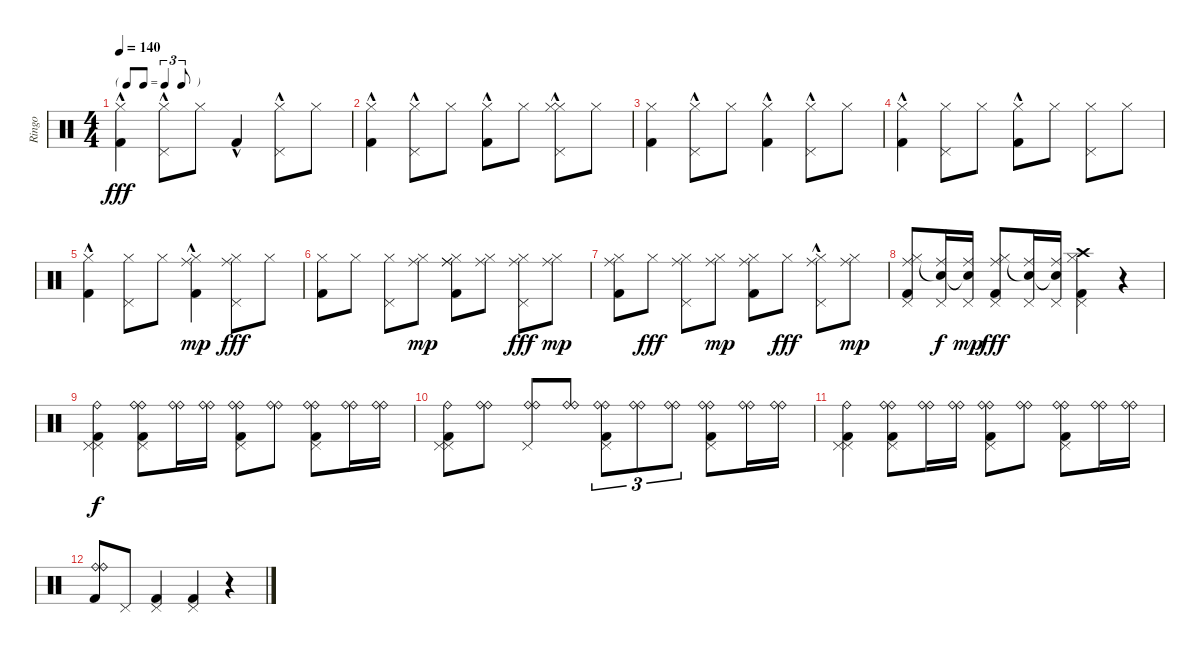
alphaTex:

\track ("Ringo" "Ringo") {instrument percussion}
\staff {score}
\articulation defaults
\ts (4 4)
\tf triplet8th
\tempo 140
\clef neutral
\ks c
("Kick (hit) 2"{hac} "Hi-Hat (closed)").4{dy fff} ("Hi-Hat (closed)" "Pedal Hi-Hat (hit)"{hac}).8 "Hi-Hat (closed)".8 "Kick (hit) 2"{hac}.4 ("Hi-Hat (closed)" "Pedal Hi-Hat (hit)"{hac}).8 "Hi-Hat (closed)".8 |
("Kick (hit) 2"{hac} "Hi-Hat (closed)").4 ("Hi-Hat (closed)" "Pedal Hi-Hat (hit)"{hac}).8 "Hi-Hat (closed)".8 ("Kick (hit) 2"{hac} "Hi-Hat (closed)").8 "Hi-Hat (closed)".8 ("Hi-Hat (closed)" "Hi-Hat (closed)" "Pedal Hi-Hat (hit)"{hac}).8 "Hi-Hat (closed)".8 |
("Kick (hit) 2" "Hi-Hat (closed)").4 ("Hi-Hat (closed)" "Pedal Hi-Hat (hit)"{hac}).8 "Hi-Hat (closed)".8 ("Kick (hit) 2"{hac} "Hi-Hat (closed)").4 ("Hi-Hat (closed)" "Pedal Hi-Hat (hit)"{hac}).8 "Hi-Hat (closed)".8 |
("Kick (hit) 2"{hac} "Hi-Hat (closed)").4 ("Hi-Hat (closed)" "Pedal Hi-Hat (hit)").8 "Hi-Hat (closed)".8 ("Kick (hit) 2"{hac} "Hi-Hat (closed)").8 "Hi-Hat (closed)".8 ("Hi-Hat (closed)" "Pedal Hi-Hat (hit)").8 "Hi-Hat (closed)".8 |
("Kick (hit) 2"{hac} "Hi-Hat (closed)").4 ("Hi-Hat (closed)" "Pedal Hi-Hat (hit)").8 "Hi-Hat (closed)".8 ("Kick (hit) 2"{hac} "Hi-Hat (closed)" "Ride (middle)").4{dy mp} ("Hi-Hat (closed)" "Ride (middle)" "Pedal Hi-Hat (hit)").8{dy fff} "Hi-Hat (closed)".8 |
("Kick (hit) 2" "Hi-Hat (closed)").8 "Hi-Hat (closed)".8 ("Hi-Hat (closed)" "Pedal Hi-Hat (hit)").8 ("Hi-Hat (closed)" "Ride (middle)").8{dy mp} ("Kick (hit) 2" "Hi-Hat (closed)" "Ride (middle)" "Ride (middle)").8 ("Hi-Hat (closed)" "Ride (middle)").8 ("Hi-Hat (closed)" "Ride (middle)" "Pedal Hi-Hat (hit)").8{dy fff} ("Hi-Hat (closed)" "Ride (middle)").8{dy mp} |
("Kick (hit) 2" "Hi-Hat (closed)" "Ride (middle)").8 "Hi-Hat (closed)".8{dy fff} ("Hi-Hat (closed)" "Ride (middle)" "Pedal Hi-Hat (hit)").8 ("Hi-Hat (closed)" "Ride (middle)").8{dy mp} ("Kick (hit) 2" "Hi-Hat (closed)" "Ride (middle)").8 "Hi-Hat (closed)".8{dy fff} ("Hi-Hat (closed)" "Ride (middle)" "Pedal Hi-Hat (hit)"{hac}).8 ("Hi-Hat (closed)" "Ride (middle)").8{dy mp} |
("Ride (middle)" "Pedal Hi-Hat (hit)" "Hi-Hat (closed)" "Kick (hit) 2").8 ("Ride (middle)" "Pedal Hi-Hat (hit)" "Snare (hit)"{t}).16{dy f} ("Ride (middle)" "Pedal Hi-Hat (hit)" "Snare (hit)"{t}).16{dy mp} ("Ride (middle)" "Pedal Hi-Hat (hit)" "Hi-Hat (closed)" "Kick (hit) 2").8{dy fff} ("Ride (middle)" "Pedal Hi-Hat (hit)" "Snare (hit)"{t}).16 ("Ride (middle)" "Pedal Hi-Hat (hit)" "Snare (hit)"{t}).16 ("Crash high (hit)" "Pedal Hi-Hat (hit)" "Hi-Hat (closed)" "Kick (hit) 2").4 r.4 |
("Ride (bell)" "Pedal Hi-Hat (hit)" "Pedal Hi-Hat (hit)" "Kick (hit) 2").4{dy f} ("Ride (bell)" "Ride (bell)" "Pedal Hi-Hat (hit)" "Kick (hit) 2").8 ("Ride (bell)" "Ride (bell)").16 ("Ride (bell)" "Ride (bell)").16 ("Ride (bell)" "Ride (bell)" "Pedal Hi-Hat (hit)" "Kick (hit) 2").8 ("Ride (bell)" "Ride (bell)").8 ("Ride (bell)" "Ride (bell)" "Pedal Hi-Hat (hit)" "Kick (hit) 2").8 ("Ride (bell)" "Ride (bell)").16 ("Ride (bell)" "Ride (bell)").16 |
("Ride (bell)" "Pedal Hi-Hat (hit)" "Pedal Hi-Hat (hit)" "Kick (hit) 2").8 ("Ride (bell)" "Ride (bell)").8 ("Ride (bell)" "Ride (bell)" "Pedal Hi-Hat (hit)").8 ("Ride (bell)" "Ride (bell)").8 ("Ride (bell)" "Ride (bell)" "Pedal Hi-Hat (hit)" "Kick (hit) 2").8{tu (3 2)} ("Ride (bell)" "Ride (bell)").8{tu (3 2)} ("Ride (bell)" "Ride (bell)").8{tu (3 2)} ("Ride (bell)" "Ride (bell)" "Pedal Hi-Hat (hit)" "Kick (hit) 2").8 ("Ride (bell)" "Ride (bell)").16 ("Ride (bell)" "Ride (bell)").16 |
("Ride (bell)" "Pedal Hi-Hat (hit)" "Pedal Hi-Hat (hit)" "Kick (hit) 2").4 ("Ride (bell)" "Ride (bell)" "Pedal Hi-Hat (hit)" "Kick (hit) 2").8 ("Ride (bell)" "Ride (bell)").16 ("Ride (bell)" "Ride (bell)").16 ("Ride (bell)" "Ride (bell)" "Pedal Hi-Hat (hit)" "Kick (hit) 2").8 ("Ride (bell)" "Ride (bell)").8 ("Ride (bell)" "Ride (bell)" "Pedal Hi-Hat (hit)" "Kick (hit) 2").8 ("Ride (bell)" "Ride (bell)").16 ("Ride (bell)" "Ride (bell)").16 |
("Ride (bell)" "Ride (bell)" "Kick (hit) 2").8 "Pedal Hi-Hat (hit)".8 ("Pedal Hi-Hat (hit)" "Kick (hit) 2").4 ("Pedal Hi-Hat (hit)" "Kick (hit) 2").4 r.4
